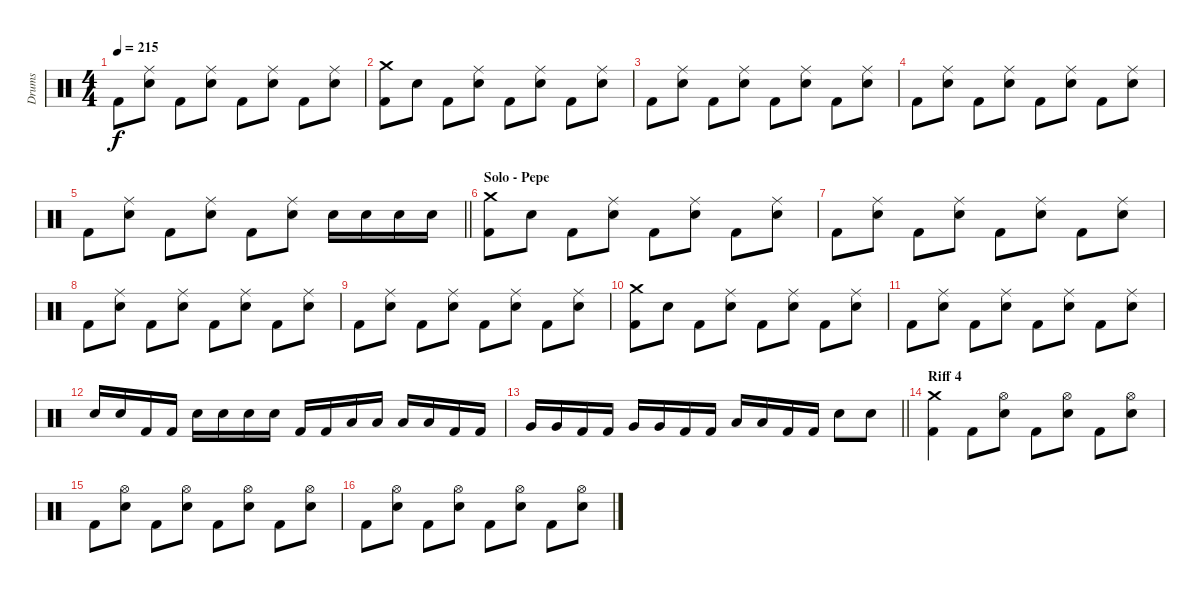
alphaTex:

\track ("Drums" "Drums") {instrument percussion}
\staff {score}
\articulation defaults
\ts (4 4)
\tempo 215
\clef neutral
\ks c "Kick (hit) 2".8{dy f}
("Ride (middle)" "Electric Snare (hit)").8 "Kick (hit) 2".8 ("Ride (middle)" "Electric Snare (hit)").8 "Kick (hit) 2".8 ("Ride (middle)" "Electric Snare (hit)").8 "Kick (hit) 2".8 ("Ride (middle)" "Electric Snare (hit)").8 |
("Crash medium (hit)" "Kick (hit) 2").8 "Electric Snare (hit)".8 "Kick (hit) 2".8 ("Ride (middle)" "Electric Snare (hit)").8 "Kick (hit) 2".8 ("Ride (middle)" "Electric Snare (hit)").8 "Kick (hit) 2".8 ("Ride (middle)" "Electric Snare (hit)").8 |
"Kick (hit) 2".8 ("Ride (middle)" "Electric Snare (hit)").8 "Kick (hit) 2".8 ("Ride (middle)" "Electric Snare (hit)").8 "Kick (hit) 2".8 ("Ride (middle)" "Electric Snare (hit)").8 "Kick (hit) 2".8 ("Ride (middle)" "Electric Snare (hit)").8 |
"Kick (hit) 2".8 ("Ride (middle)" "Electric Snare (hit)").8 "Kick (hit) 2".8 ("Ride (middle)" "Electric Snare (hit)").8 "Kick (hit) 2".8 ("Ride (middle)" "Electric Snare (hit)").8 "Kick (hit) 2".8 ("Ride (middle)" "Electric Snare (hit)").8 |
\barLineRight lightlight "Kick (hit) 2".8
("Ride (middle)" "Electric Snare (hit)").8 "Kick (hit) 2".8 ("Ride (middle)" "Electric Snare (hit)").8 "Kick (hit) 2".8 ("Ride (middle)" "Electric Snare (hit)").8 "Electric Snare (hit)".16 "Electric Snare (hit)".16 "Electric Snare (hit)".16 "Electric Snare (hit)".16 |
\section ("" "Solo - Pepe")
("Crash medium (hit)" "Kick (hit) 2").8 "Electric Snare (hit)".8 "Kick (hit) 2".8 ("Ride (middle)" "Electric Snare (hit)").8 "Kick (hit) 2".8 ("Ride (middle)" "Electric Snare (hit)").8 "Kick (hit) 2".8 ("Ride (middle)" "Electric Snare (hit)").8 |
"Kick (hit) 2".8 ("Ride (middle)" "Electric Snare (hit)").8 "Kick (hit) 2".8 ("Ride (middle)" "Electric Snare (hit)").8 "Kick (hit) 2".8 ("Ride (middle)" "Electric Snare (hit)").8 "Kick (hit) 2".8 ("Ride (middle)" "Electric Snare (hit)").8 |
"Kick (hit) 2".8 ("Ride (middle)" "Electric Snare (hit)").8 "Kick (hit) 2".8 ("Ride (middle)" "Electric Snare (hit)").8 "Kick (hit) 2".8 ("Ride (middle)" "Electric Snare (hit)").8 "Kick (hit) 2".8 ("Ride (middle)" "Electric Snare (hit)").8 |
"Kick (hit) 2".8 ("Ride (middle)" "Electric Snare (hit)").8 "Kick (hit) 2".8 ("Ride (middle)" "Electric Snare (hit)").8 "Kick (hit) 2".8 ("Ride (middle)" "Electric Snare (hit)").8 "Kick (hit) 2".8 ("Ride (middle)" "Electric Snare (hit)").8 |
("Crash medium (hit)" "Kick (hit) 2").8 "Electric Snare (hit)".8 "Kick (hit) 2".8 ("Ride (middle)" "Electric Snare (hit)").8 "Kick (hit) 2".8 ("Ride (middle)" "Electric Snare (hit)").8 "Kick (hit) 2".8 ("Ride (middle)" "Electric Snare (hit)").8 |
"Kick (hit) 2".8 ("Ride (middle)" "Electric Snare (hit)").8 "Kick (hit) 2".8 ("Ride (middle)" "Electric Snare (hit)").8 "Kick (hit) 2".8 ("Ride (middle)" "Electric Snare (hit)").8 "Kick (hit) 2".8 ("Ride (middle)" "Electric Snare (hit)").8 |
"Electric Snare (hit)".16 "Electric Snare (hit)".16 "Kick (hit) 2".16 "Kick (hit) 2".16 "Electric Snare (hit)".16 "Electric Snare (hit)".16 "Electric Snare (hit)".16 "Electric Snare (hit)".16 "Kick (hit) 2".16 "Kick (hit) 2".16 "Low Tom (hit)".16 "Low Tom (hit)".16 "Low Tom (hit)".16 "Low Tom (hit)".16 "Kick (hit) 2".16 "Kick (hit) 2".16 |
\barLineRight lightlight "Very Low Tom (hit)".16 "Very Low Tom (hit)".16 "Kick (hit) 2".16 "Kick (hit) 2".16 "Very Low Tom (hit)".16 "Very Low Tom (hit)".16 "Kick (hit) 2".16 "Kick (hit) 2".16 "Low Floor Tom (hit)".16 "Low Floor Tom (hit)".16 "Kick (hit) 2".16 "Kick (hit) 2".16 "Electric Snare (hit)".8 "Electric Snare (hit)".8
|
\section ("" "Riff 4")
("Crash medium (hit)" "Kick (hit) 2").4 "Kick (hit) 2".8 ("Hi-Hat (open)" "Electric Snare (hit)").8 "Kick (hit) 2".8 ("Hi-Hat (open)" "Electric Snare (hit)").8 "Kick (hit) 2".8 ("Electric Snare (hit)" "Hi-Hat (open)").8 |
"Kick (hit) 2".8 ("Hi-Hat (open)" "Electric Snare (hit)").8 "Kick (hit) 2".8 ("Electric Snare (hit)" "Hi-Hat (open)").8 "Kick (hit) 2".8 ("Hi-Hat (open)" "Electric Snare (hit)").8 "Kick (hit) 2".8 ("Electric Snare (hit)" "Hi-Hat (open)").8 |
"Kick (hit) 2".8 ("Hi-Hat (open)" "Electric Snare (hit)").8 "Kick (hit) 2".8 ("Electric Snare (hit)" "Hi-Hat (open)").8 "Kick (hit) 2".8 ("Hi-Hat (open)" "Electric Snare (hit)").8 "Kick (hit) 2".8 ("Electric Snare (hit)" "Hi-Hat (open)").8
